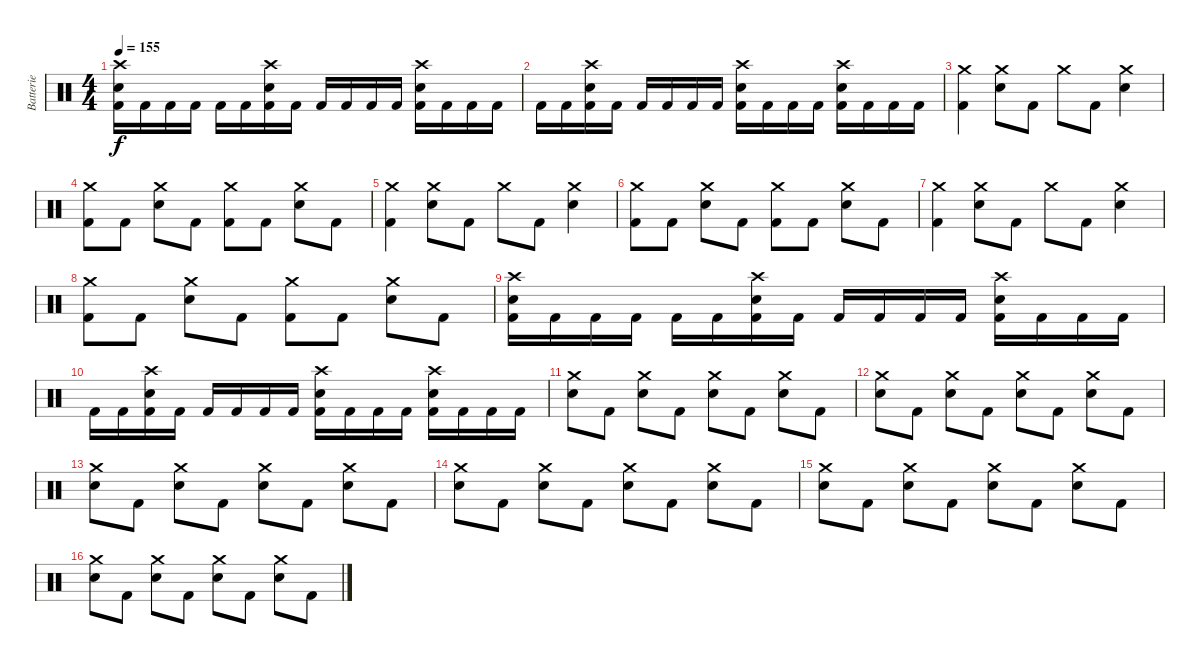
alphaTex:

\track ("Batterie" "Batterie") {instrument percussion}
\staff {score}
\articulation defaults
\ts (4 4)
\tempo 155
\clef neutral
\ks c
("Crash high (hit)" "Electric Snare (hit)" "Kick (hit) 2").16{dy f} "Kick (hit) 2".16 "Kick (hit) 2".16 "Kick (hit) 2".16 "Kick (hit) 2".16 "Kick (hit) 2".16 ("Crash high (hit)" "Electric Snare (hit)" "Kick (hit) 2").16 "Kick (hit) 2".16 "Kick (hit) 2".16 "Kick (hit) 2".16 "Kick (hit) 2".16 "Kick (hit) 2".16 ("Crash high (hit)" "Electric Snare (hit)" "Kick (hit) 2").16 "Kick (hit) 2".16 "Kick (hit) 2".16 "Kick (hit) 2".16 |
"Kick (hit) 2".16 "Kick (hit) 2".16 ("Crash high (hit)" "Electric Snare (hit)" "Kick (hit) 2").16 "Kick (hit) 2".16 "Kick (hit) 2".16 "Kick (hit) 2".16 "Kick (hit) 2".16 "Kick (hit) 2".16 ("Crash high (hit)" "Electric Snare (hit)" "Kick (hit) 2").16 "Kick (hit) 2".16 "Kick (hit) 2".16 "Kick (hit) 2".16 ("Crash high (hit)" "Electric Snare (hit)" "Kick (hit) 2").16 "Kick (hit) 2".16 "Kick (hit) 2".16 "Kick (hit) 2".16 |
\section ("" "")
("Crash medium (hit)" "Kick (hit) 2").4 ("Crash medium (hit)" "Electric Snare (hit)").8 "Kick (hit) 2".8 "Crash medium (hit)".8 "Kick (hit) 2".8 ("Crash medium (hit)" "Electric Snare (hit)").4 |
("Crash medium (hit)" "Kick (hit) 2").8 "Kick (hit) 2".8 ("Crash medium (hit)" "Electric Snare (hit)").8 "Kick (hit) 2".8 ("Crash medium (hit)" "Kick (hit) 2").8 "Kick (hit) 2".8 ("Crash medium (hit)" "Electric Snare (hit)").8 "Kick (hit) 2".8 |
("Crash medium (hit)" "Kick (hit) 2").4 ("Crash medium (hit)" "Electric Snare (hit)").8 "Kick (hit) 2".8 "Crash medium (hit)".8 "Kick (hit) 2".8 ("Crash medium (hit)" "Electric Snare (hit)").4 |
("Crash medium (hit)" "Kick (hit) 2").8 "Kick (hit) 2".8 ("Crash medium (hit)" "Electric Snare (hit)").8 "Kick (hit) 2".8 ("Crash medium (hit)" "Kick (hit) 2").8 "Kick (hit) 2".8 ("Crash medium (hit)" "Electric Snare (hit)").8 "Kick (hit) 2".8 |
("Crash medium (hit)" "Kick (hit) 2").4 ("Crash medium (hit)" "Electric Snare (hit)").8 "Kick (hit) 2".8 "Crash medium (hit)".8 "Kick (hit) 2".8 ("Crash medium (hit)" "Electric Snare (hit)").4 |
("Crash medium (hit)" "Kick (hit) 2").8 "Kick (hit) 2".8 ("Crash medium (hit)" "Electric Snare (hit)").8 "Kick (hit) 2".8 ("Crash medium (hit)" "Kick (hit) 2").8 "Kick (hit) 2".8 ("Crash medium (hit)" "Electric Snare (hit)").8 "Kick (hit) 2".8 |
("Crash high (hit)" "Electric Snare (hit)" "Kick (hit) 2").16 "Kick (hit) 2".16 "Kick (hit) 2".16 "Kick (hit) 2".16 "Kick (hit) 2".16 "Kick (hit) 2".16 ("Crash high (hit)" "Electric Snare (hit)" "Kick (hit) 2").16 "Kick (hit) 2".16 "Kick (hit) 2".16 "Kick (hit) 2".16 "Kick (hit) 2".16 "Kick (hit) 2".16 ("Crash high (hit)" "Electric Snare (hit)" "Kick (hit) 2").16 "Kick (hit) 2".16 "Kick (hit) 2".16 "Kick (hit) 2".16 |
"Kick (hit) 2".16 "Kick (hit) 2".16 ("Crash high (hit)" "Electric Snare (hit)" "Kick (hit) 2").16 "Kick (hit) 2".16 "Kick (hit) 2".16 "Kick (hit) 2".16 "Kick (hit) 2".16 "Kick (hit) 2".16 ("Crash high (hit)" "Electric Snare (hit)" "Kick (hit) 2").16 "Kick (hit) 2".16 "Kick (hit) 2".16 "Kick (hit) 2".16 ("Crash high (hit)" "Electric Snare (hit)" "Kick (hit) 2").16 "Kick (hit) 2".16 "Kick (hit) 2".16 "Kick (hit) 2".16 |
("Crash medium (hit)" "Electric Snare (hit)").8 "Kick (hit) 2".8 ("Crash medium (hit)" "Electric Snare (hit)").8 "Kick (hit) 2".8 ("Crash medium (hit)" "Electric Snare (hit)").8 "Kick (hit) 2".8 ("Crash medium (hit)" "Electric Snare (hit)").8 "Kick (hit) 2".8 |
("Crash medium (hit)" "Electric Snare (hit)").8 "Kick (hit) 2".8 ("Crash medium (hit)" "Electric Snare (hit)").8 "Kick (hit) 2".8 ("Crash medium (hit)" "Electric Snare (hit)").8 "Kick (hit) 2".8 ("Crash medium (hit)" "Electric Snare (hit)").8 "Kick (hit) 2".8 |
("Crash medium (hit)" "Electric Snare (hit)").8 "Kick (hit) 2".8 ("Crash medium (hit)" "Electric Snare (hit)").8 "Kick (hit) 2".8 ("Crash medium (hit)" "Electric Snare (hit)").8 "Kick (hit) 2".8 ("Crash medium (hit)" "Electric Snare (hit)").8 "Kick (hit) 2".8 |
("Crash medium (hit)" "Electric Snare (hit)").8 "Kick (hit) 2".8 ("Crash medium (hit)" "Electric Snare (hit)").8 "Kick (hit) 2".8 ("Crash medium (hit)" "Electric Snare (hit)").8 "Kick (hit) 2".8 ("Crash medium (hit)" "Electric Snare (hit)").8 "Kick (hit) 2".8 |
("Crash medium (hit)" "Electric Snare (hit)").8 "Kick (hit) 2".8 ("Crash medium (hit)" "Electric Snare (hit)").8 "Kick (hit) 2".8 ("Crash medium (hit)" "Electric Snare (hit)").8 "Kick (hit) 2".8 ("Crash medium (hit)" "Electric Snare (hit)").8 "Kick (hit) 2".8 |
("Crash medium (hit)" "Electric Snare (hit)").8 "Kick (hit) 2".8 ("Crash medium (hit)" "Electric Snare (hit)").8 "Kick (hit) 2".8 ("Crash medium (hit)" "Electric Snare (hit)").8 "Kick (hit) 2".8 ("Crash medium (hit)" "Electric Snare (hit)").8 "Kick (hit) 2".8
